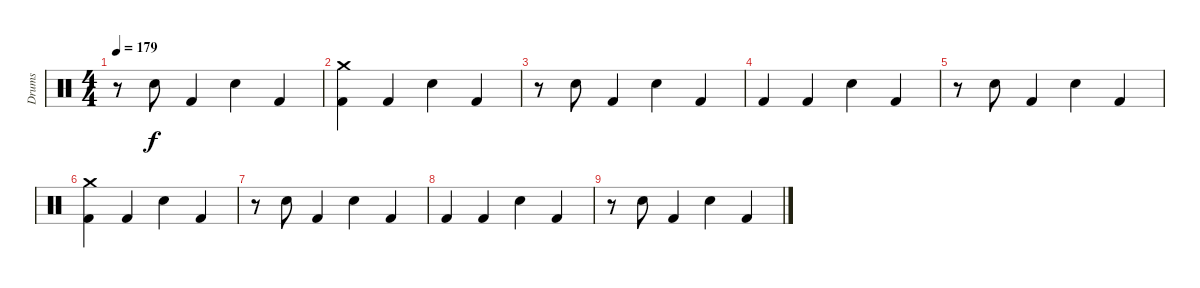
\track ("Drums" "Drums") {instrument percussion}
\staff {score}
\articulation defaults
\ts (4 4)
\tempo 179
\clef neutral
\ks c
r.8{dy f} "Snare (hit) 2".8 "Kick (hit) 2".4 "Snare (hit) 2".4 "Kick (hit) 2".4 |
("Crash medium (hit)" "Kick (hit) 2").4 "Kick (hit) 2".4 "Snare (hit) 2".4 "Kick (hit) 2".4 |
r.8 "Snare (hit) 2".8 "Kick (hit) 2".4 "Snare (hit) 2".4 "Kick (hit) 2".4 |
"Kick (hit) 2".4 "Kick (hit) 2".4 "Snare (hit) 2".4 "Kick (hit) 2".4 |
r.8 "Snare (hit) 2".8 "Kick (hit) 2".4 "Snare (hit) 2".4 "Kick (hit) 2".4 |
("Crash medium (hit)" "Kick (hit) 2").4 "Kick (hit) 2".4 "Snare (hit) 2".4 "Kick (hit) 2".4 |
r.8 "Snare (hit) 2".8 "Kick (hit) 2".4 "Snare (hit) 2".4 "Kick (hit) 2".4 |
"Kick (hit) 2".4 "Kick (hit) 2".4 "Snare (hit) 2".4 "Kick (hit) 2".4 |
r.8 "Snare (hit) 2".8 "Kick (hit) 2".4 "Snare (hit) 2".4 "Kick (hit) 2".4
